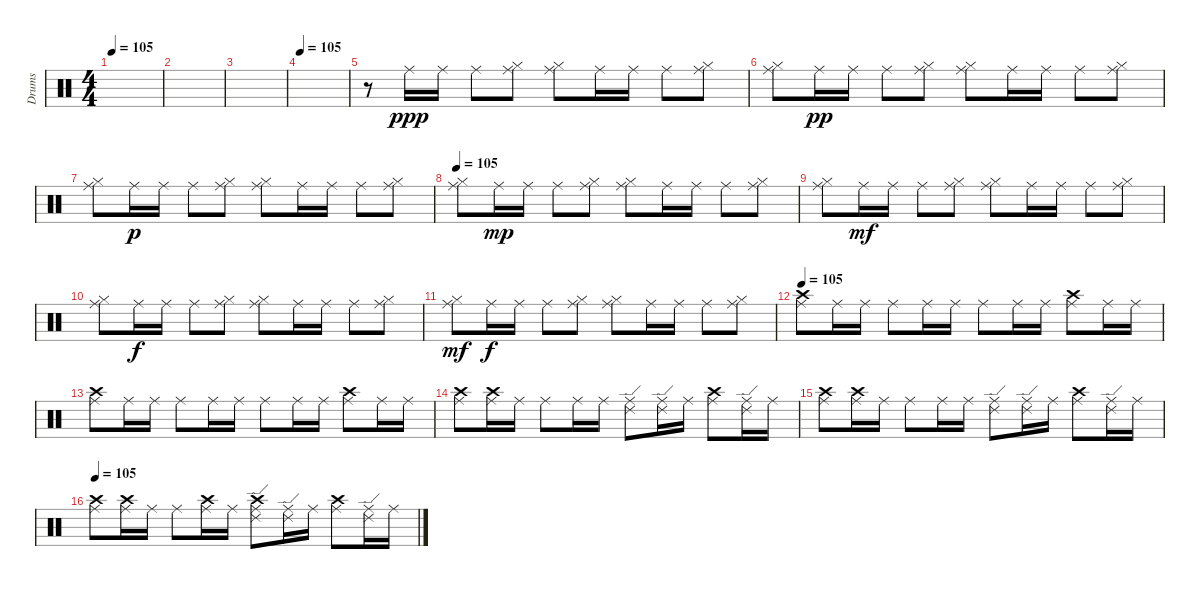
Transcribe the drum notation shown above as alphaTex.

\track ("Drums" "Drums") {instrument percussion}
\staff {score}
\articulation defaults
\ts (4 4)
\tempo 105
\clef neutral
\ks c
|
|
|
\tempo 105
|
r.8 "Ride (middle)".16{dy ppp} "Ride (middle)".16 "Ride (middle)".8 ("Ride (middle)" "Hi-Hat (closed)").8 ("Ride (middle)" "Hi-Hat (closed)").8 "Ride (middle)".16 "Ride (middle)".16 "Ride (middle)".8 ("Ride (middle)" "Hi-Hat (closed)").8 |
("Ride (middle)" "Hi-Hat (closed)").8 "Ride (middle)".16{dy pp} "Ride (middle)".16 "Ride (middle)".8 ("Ride (middle)" "Hi-Hat (closed)").8 ("Ride (middle)" "Hi-Hat (closed)").8 "Ride (middle)".16 "Ride (middle)".16 "Ride (middle)".8 ("Ride (middle)" "Hi-Hat (closed)").8 |
("Ride (middle)" "Hi-Hat (closed)").8 "Ride (middle)".16{dy p} "Ride (middle)".16 "Ride (middle)".8 ("Ride (middle)" "Hi-Hat (closed)").8 ("Ride (middle)" "Hi-Hat (closed)").8 "Ride (middle)".16 "Ride (middle)".16 "Ride (middle)".8 ("Ride (middle)" "Hi-Hat (closed)").8 |
\tempo 105
("Ride (middle)" "Hi-Hat (closed)").8 "Ride (middle)".16{dy mp} "Ride (middle)".16 "Ride (middle)".8 ("Ride (middle)" "Hi-Hat (closed)").8 ("Ride (middle)" "Hi-Hat (closed)").8 "Ride (middle)".16 "Ride (middle)".16 "Ride (middle)".8 ("Ride (middle)" "Hi-Hat (closed)").8 |
("Ride (middle)" "Hi-Hat (closed)").8 "Ride (middle)".16{dy mf} "Ride (middle)".16 "Ride (middle)".8 ("Ride (middle)" "Hi-Hat (closed)").8 ("Ride (middle)" "Hi-Hat (closed)").8 "Ride (middle)".16 "Ride (middle)".16 "Ride (middle)".8 ("Ride (middle)" "Hi-Hat (closed)").8 |
("Ride (middle)" "Hi-Hat (closed)").8 "Ride (middle)".16{dy f} "Ride (middle)".16 "Ride (middle)".8 ("Ride (middle)" "Hi-Hat (closed)").8 ("Ride (middle)" "Hi-Hat (closed)").8 "Ride (middle)".16 "Ride (middle)".16 "Ride (middle)".8 ("Ride (middle)" "Hi-Hat (closed)").8 |
("Ride (middle)" "Hi-Hat (closed)").8{dy mf} "Ride (middle)".16{dy f} "Ride (middle)".16 "Ride (middle)".8 ("Ride (middle)" "Hi-Hat (closed)").8 ("Ride (middle)" "Hi-Hat (closed)").8 "Ride (middle)".16 "Ride (middle)".16 "Ride (middle)".8 ("Ride (middle)" "Hi-Hat (closed)").8 |
\tempo 105
("Crash high (hit)" "Ride (middle)").8 "Ride (middle)".16 "Ride (middle)".16 "Ride (middle)".8 "Ride (middle)".16 "Ride (middle)".16 "Ride (middle)".8 "Ride (middle)".16 "Ride (middle)".16 ("Crash high (hit)" "Ride (middle)").8 "Ride (middle)".16 "Ride (middle)".16 |
("Crash high (hit)" "Ride (middle)").8 "Ride (middle)".16 "Ride (middle)".16 "Ride (middle)".8 "Ride (middle)".16 "Ride (middle)".16 "Ride (middle)".8 "Ride (middle)".16 "Ride (middle)".16 ("Crash high (hit)" "Ride (middle)").8 "Ride (middle)".16 "Ride (middle)".16 |
("Crash high (hit)" "Ride (middle)").8 ("Ride (middle)" "Crash high (hit)").16 "Ride (middle)".16 "Ride (middle)".8 "Ride (middle)".16 "Ride (middle)".16 ("Ride (middle)" "Ride (edge) 2").8 ("Ride (middle)" "Ride (edge) 2").16 "Ride (middle)".16 ("Crash high (hit)" "Ride (middle)").8 ("Ride (middle)" "Ride (edge) 2").16 "Ride (middle)".16 |
("Crash high (hit)" "Ride (middle)").8 ("Ride (middle)" "Crash high (hit)").16 "Ride (middle)".16 "Ride (middle)".8 "Ride (middle)".16 "Ride (middle)".16 ("Ride (middle)" "Ride (edge) 2").8 ("Ride (middle)" "Ride (edge) 2").16 "Ride (middle)".16 ("Crash high (hit)" "Ride (middle)").8 ("Ride (middle)" "Ride (edge) 2").16 "Ride (middle)".16 |
\tempo 105
("Crash high (hit)" "Ride (middle)").8 ("Ride (middle)" "Crash high (hit)").16 "Ride (middle)".16 "Ride (middle)".8 ("Crash high (hit)" "Ride (middle)").16 "Ride (middle)".16 ("Ride (middle)" "Crash high (hit)" "Ride (edge) 2").8 ("Ride (middle)" "Ride (edge) 2").16 "Ride (middle)".16 ("Crash high (hit)" "Ride (middle)").8 ("Ride (middle)" "Ride (edge) 2").16 "Ride (middle)".16
